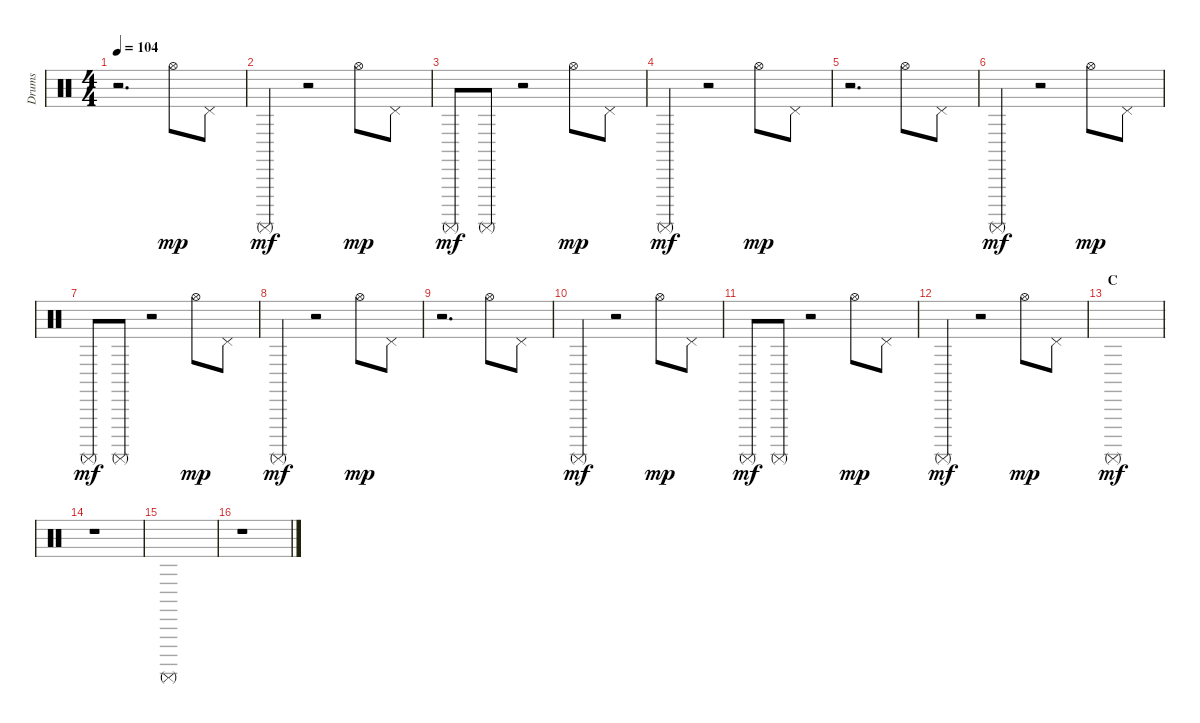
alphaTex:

\track ("Drums" "Drums") {instrument percussion}
\staff {score}
\articulation defaults
\ts (4 4)
\tempo 104
\clef neutral
\ks c
r.2{d dy mp} "Hi-Hat (open)".8 "Pedal Hi-Hat (hit)".8 |
"Surdo (mute)".4{dy mf} r.2 "Hi-Hat (open)".8{dy mp} "Pedal Hi-Hat (hit)".8 |
"Surdo (mute)".8{dy mf} "Surdo (mute)".8 r.2 "Hi-Hat (open)".8{dy mp} "Pedal Hi-Hat (hit)".8 |
"Surdo (mute)".4{dy mf} r.2 "Hi-Hat (open)".8{dy mp} "Pedal Hi-Hat (hit)".8 |
r.2{d} "Hi-Hat (open)".8 "Pedal Hi-Hat (hit)".8 |
"Surdo (mute)".4{dy mf} r.2 "Hi-Hat (open)".8{dy mp} "Pedal Hi-Hat (hit)".8 |
"Surdo (mute)".8{dy mf} "Surdo (mute)".8 r.2 "Hi-Hat (open)".8{dy mp} "Pedal Hi-Hat (hit)".8 |
"Surdo (mute)".4{dy mf} r.2 "Hi-Hat (open)".8{dy mp} "Pedal Hi-Hat (hit)".8 |
r.2{d} "Hi-Hat (open)".8 "Pedal Hi-Hat (hit)".8 |
"Surdo (mute)".4{dy mf} r.2 "Hi-Hat (open)".8{dy mp} "Pedal Hi-Hat (hit)".8 |
"Surdo (mute)".8{dy mf} "Surdo (mute)".8 r.2 "Hi-Hat (open)".8{dy mp} "Pedal Hi-Hat (hit)".8 |
"Surdo (mute)".4{dy mf} r.2 "Hi-Hat (open)".8{dy mp} "Pedal Hi-Hat (hit)".8 |
\section ("" "C")
"Surdo (mute)".1{dy mf} |
r.1 |
"Surdo (mute)".1 |
r.1
